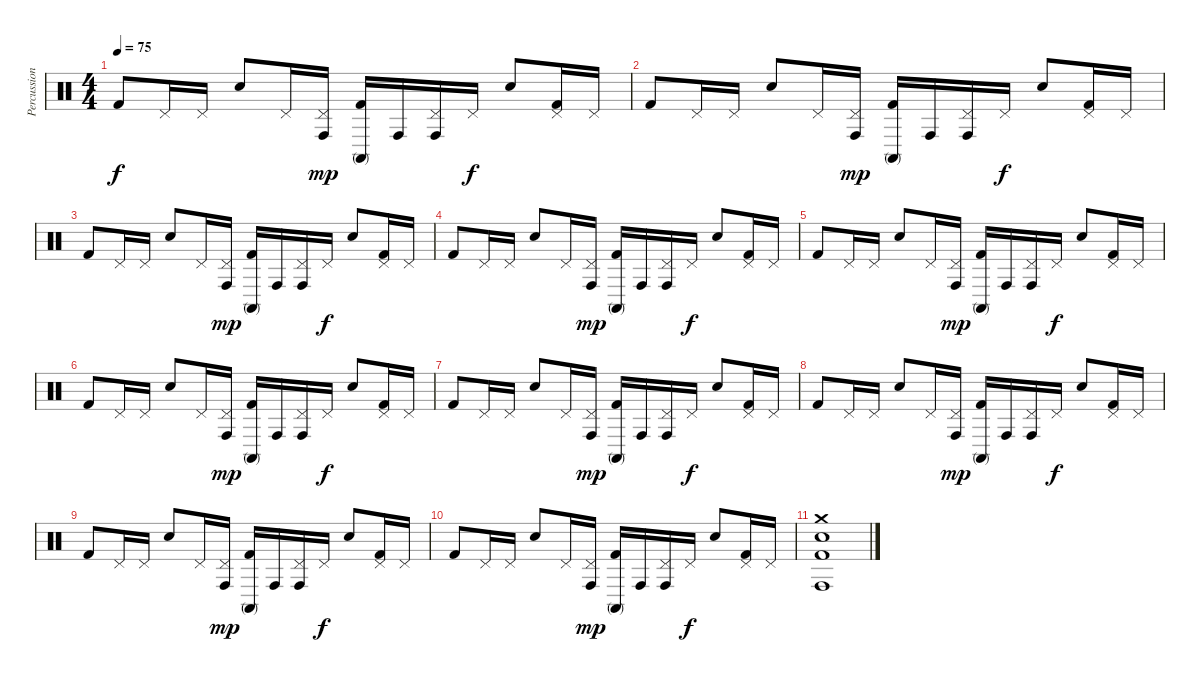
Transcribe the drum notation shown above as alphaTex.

\track ("Percussion" "Percussion") {instrument percussion}
\staff {score}
\articulation defaults
\ts (4 4)
\tempo 75
\clef neutral
\ks c "Kick (hit) 2".8{dy f} "Pedal Hi-Hat (hit)".16 "Pedal Hi-Hat (hit)".16 "Snare (hit) 2".8 "Pedal Hi-Hat (hit)".16
("Pedal Hi-Hat (hit)" "Conga high (hit)").16{dy mp} ("Conga high (mute)" "Kick (hit) 2").16 "Conga high (hit)".16 ("Pedal Hi-Hat (hit)" "Conga high (hit)").16 "Pedal Hi-Hat (hit)".16{dy f} "Snare (hit) 2".8 ("Pedal Hi-Hat (hit)" "Kick (hit) 2").16 "Pedal Hi-Hat (hit)".16 |
"Kick (hit) 2".8 "Pedal Hi-Hat (hit)".16 "Pedal Hi-Hat (hit)".16 "Snare (hit) 2".8 "Pedal Hi-Hat (hit)".16 ("Pedal Hi-Hat (hit)" "Conga high (hit)").16{dy mp} ("Conga high (mute)" "Kick (hit) 2").16 "Conga high (hit)".16 ("Pedal Hi-Hat (hit)" "Conga high (hit)").16 "Pedal Hi-Hat (hit)".16{dy f} "Snare (hit) 2".8 ("Pedal Hi-Hat (hit)" "Kick (hit) 2").16 "Pedal Hi-Hat (hit)".16 |
"Kick (hit) 2".8 "Pedal Hi-Hat (hit)".16 "Pedal Hi-Hat (hit)".16 "Snare (hit) 2".8 "Pedal Hi-Hat (hit)".16 ("Pedal Hi-Hat (hit)" "Conga high (hit)").16{dy mp} ("Conga high (mute)" "Kick (hit) 2").16 "Conga high (hit)".16 ("Pedal Hi-Hat (hit)" "Conga high (hit)").16 "Pedal Hi-Hat (hit)".16{dy f} "Snare (hit) 2".8 ("Pedal Hi-Hat (hit)" "Kick (hit) 2").16 "Pedal Hi-Hat (hit)".16 |
"Kick (hit) 2".8 "Pedal Hi-Hat (hit)".16 "Pedal Hi-Hat (hit)".16 "Snare (hit) 2".8 "Pedal Hi-Hat (hit)".16 ("Pedal Hi-Hat (hit)" "Conga high (hit)").16{dy mp} ("Conga high (mute)" "Kick (hit) 2").16 "Conga high (hit)".16 ("Pedal Hi-Hat (hit)" "Conga high (hit)").16 "Pedal Hi-Hat (hit)".16{dy f} "Snare (hit) 2".8 ("Pedal Hi-Hat (hit)" "Kick (hit) 2").16 "Pedal Hi-Hat (hit)".16 |
"Kick (hit) 2".8 "Pedal Hi-Hat (hit)".16 "Pedal Hi-Hat (hit)".16 "Snare (hit) 2".8 "Pedal Hi-Hat (hit)".16 ("Pedal Hi-Hat (hit)" "Conga high (hit)").16{dy mp} ("Conga high (mute)" "Kick (hit) 2").16 "Conga high (hit)".16 ("Pedal Hi-Hat (hit)" "Conga high (hit)").16 "Pedal Hi-Hat (hit)".16{dy f} "Snare (hit) 2".8 ("Pedal Hi-Hat (hit)" "Kick (hit) 2").16 "Pedal Hi-Hat (hit)".16 |
"Kick (hit) 2".8 "Pedal Hi-Hat (hit)".16 "Pedal Hi-Hat (hit)".16 "Snare (hit) 2".8 "Pedal Hi-Hat (hit)".16 ("Pedal Hi-Hat (hit)" "Conga high (hit)").16{dy mp} ("Conga high (mute)" "Kick (hit) 2").16 "Conga high (hit)".16 ("Pedal Hi-Hat (hit)" "Conga high (hit)").16 "Pedal Hi-Hat (hit)".16{dy f} "Snare (hit) 2".8 ("Pedal Hi-Hat (hit)" "Kick (hit) 2").16 "Pedal Hi-Hat (hit)".16 |
"Kick (hit) 2".8 "Pedal Hi-Hat (hit)".16 "Pedal Hi-Hat (hit)".16 "Snare (hit) 2".8 "Pedal Hi-Hat (hit)".16 ("Pedal Hi-Hat (hit)" "Conga high (hit)").16{dy mp} ("Conga high (mute)" "Kick (hit) 2").16 "Conga high (hit)".16 ("Pedal Hi-Hat (hit)" "Conga high (hit)").16 "Pedal Hi-Hat (hit)".16{dy f} "Snare (hit) 2".8 ("Pedal Hi-Hat (hit)" "Kick (hit) 2").16 "Pedal Hi-Hat (hit)".16 |
"Kick (hit) 2".8 "Pedal Hi-Hat (hit)".16 "Pedal Hi-Hat (hit)".16 "Snare (hit) 2".8 "Pedal Hi-Hat (hit)".16 ("Pedal Hi-Hat (hit)" "Conga high (hit)").16{dy mp} ("Conga high (mute)" "Kick (hit) 2").16 "Conga high (hit)".16 ("Pedal Hi-Hat (hit)" "Conga high (hit)").16 "Pedal Hi-Hat (hit)".16{dy f} "Snare (hit) 2".8 ("Pedal Hi-Hat (hit)" "Kick (hit) 2").16 "Pedal Hi-Hat (hit)".16 |
"Kick (hit) 2".8 "Pedal Hi-Hat (hit)".16 "Pedal Hi-Hat (hit)".16 "Snare (hit) 2".8 "Pedal Hi-Hat (hit)".16 ("Pedal Hi-Hat (hit)" "Conga high (hit)").16{dy mp} ("Conga high (mute)" "Kick (hit) 2").16 "Conga high (hit)".16 ("Pedal Hi-Hat (hit)" "Conga high (hit)").16 "Pedal Hi-Hat (hit)".16{dy f} "Snare (hit) 2".8 ("Pedal Hi-Hat (hit)" "Kick (hit) 2").16 "Pedal Hi-Hat (hit)".16 |
"Kick (hit) 2".8 "Pedal Hi-Hat (hit)".16 "Pedal Hi-Hat (hit)".16 "Snare (hit) 2".8 "Pedal Hi-Hat (hit)".16 ("Pedal Hi-Hat (hit)" "Conga high (hit)").16{dy mp} ("Conga high (mute)" "Kick (hit) 2").16 "Conga high (hit)".16 ("Pedal Hi-Hat (hit)" "Conga high (hit)").16 "Pedal Hi-Hat (hit)".16{dy f} "Snare (hit) 2".8 ("Pedal Hi-Hat (hit)" "Kick (hit) 2").16 "Pedal Hi-Hat (hit)".16 |
("Crash medium (hit)" "Snare (hit) 2" "Conga high (hit)" "Kick (hit) 2").1
